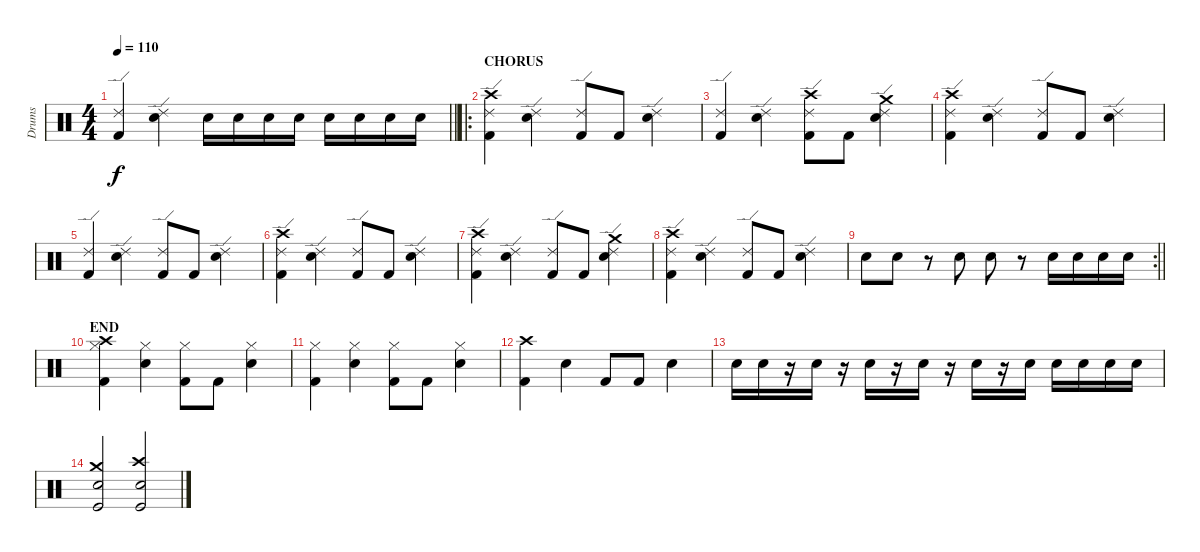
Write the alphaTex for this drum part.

\track ("Drums" "Drums") {instrument percussion}
\staff {score}
\articulation defaults
\ts (4 4)
\tempo 110
\clef neutral
\barLineRight lightlight
\ks aminor
("Ride (edge) 2" "Kick (hit) 2").4{dy f} ("Ride (edge) 2" "Electric Snare (hit)").4 "Electric Snare (hit)".16 "Electric Snare (hit)".16 "Electric Snare (hit)".16 "Electric Snare (hit)".16 "Electric Snare (hit)".16 "Electric Snare (hit)".16 "Electric Snare (hit)".16 "Electric Snare (hit)".16 |
\ro
\section ("" "CHORUS")
("Crash high (hit)" "Ride (edge) 2" "Kick (hit) 2").4 ("Ride (edge) 2" "Electric Snare (hit)").4 ("Ride (edge) 2" "Kick (hit) 2").8 "Kick (hit) 2".8 ("Ride (edge) 2" "Electric Snare (hit)").4 |
("Ride (edge) 2" "Kick (hit) 2").4 ("Ride (edge) 2" "Electric Snare (hit)").4 ("Crash high (hit)" "Ride (edge) 2" "Kick (hit) 2").8 "Kick (hit) 2".8 ("Crash medium (hit)" "Ride (edge) 2" "Electric Snare (hit)").4 |
("Crash high (hit)" "Ride (edge) 2" "Kick (hit) 2").4 ("Ride (edge) 2" "Electric Snare (hit)").4 ("Ride (edge) 2" "Kick (hit) 2").8 "Kick (hit) 2".8 ("Ride (edge) 2" "Electric Snare (hit)").4 |
("Ride (edge) 2" "Kick (hit) 2").4 ("Ride (edge) 2" "Electric Snare (hit)").4 ("Ride (edge) 2" "Kick (hit) 2").8 "Kick (hit) 2".8 ("Ride (edge) 2" "Electric Snare (hit)").4 |
("Crash high (hit)" "Ride (edge) 2" "Kick (hit) 2").4 ("Ride (edge) 2" "Electric Snare (hit)").4 ("Ride (edge) 2" "Kick (hit) 2").8 "Kick (hit) 2".8 ("Ride (edge) 2" "Electric Snare (hit)").4 |
("Crash high (hit)" "Ride (edge) 2" "Kick (hit) 2").4 ("Ride (edge) 2" "Electric Snare (hit)").4 ("Ride (edge) 2" "Kick (hit) 2").8 "Kick (hit) 2".8 ("Crash medium (hit)" "Ride (edge) 2" "Electric Snare (hit)").4 |
("Crash high (hit)" "Ride (edge) 2" "Kick (hit) 2").4 ("Ride (edge) 2" "Electric Snare (hit)").4 ("Ride (edge) 2" "Kick (hit) 2").8 "Kick (hit) 2".8 ("Ride (edge) 2" "Electric Snare (hit)").4 |
\rc 2
\barLineRight lightlight "Electric Snare (hit)".8 "Electric Snare (hit)".8
r.8 "Electric Snare (hit)".8 "Electric Snare (hit)".8 r.8 "Electric Snare (hit)".16 "Electric Snare (hit)".16 "Electric Snare (hit)".16 "Electric Snare (hit)".16 |
\section ("" "END")
("Crash high (hit)" "Hi-Hat (closed)" "Kick (hit) 2").4 ("Hi-Hat (closed)" "Electric Snare (hit)").4 ("Hi-Hat (closed)" "Kick (hit) 2").8 "Kick (hit) 2".8 ("Hi-Hat (closed)" "Electric Snare (hit)").4 |
("Hi-Hat (closed)" "Kick (hit) 2").4 ("Hi-Hat (closed)" "Electric Snare (hit)").4 ("Hi-Hat (closed)" "Kick (hit) 2").8 "Kick (hit) 2".8 ("Hi-Hat (closed)" "Electric Snare (hit)").4 |
("Crash high (hit)" "Kick (hit) 2").4 "Electric Snare (hit)".4 "Kick (hit) 2".8 "Kick (hit) 2".8 "Electric Snare (hit)".4 |
"Electric Snare (hit)".16 "Electric Snare (hit)".16 r.16 "Electric Snare (hit)".16 r.16 "Electric Snare (hit)".16 r.16 "Electric Snare (hit)".16 r.16 "Electric Snare (hit)".16 r.16 "Electric Snare (hit)".16 "Electric Snare (hit)".16 "Electric Snare (hit)".16 "Electric Snare (hit)".16 "Electric Snare (hit)".16 |
("Crash medium (hit)" "Electric Snare (hit)" "Kick (hit)").2 ("Crash high (hit)" "Electric Snare (hit)" "Kick (hit)").2
